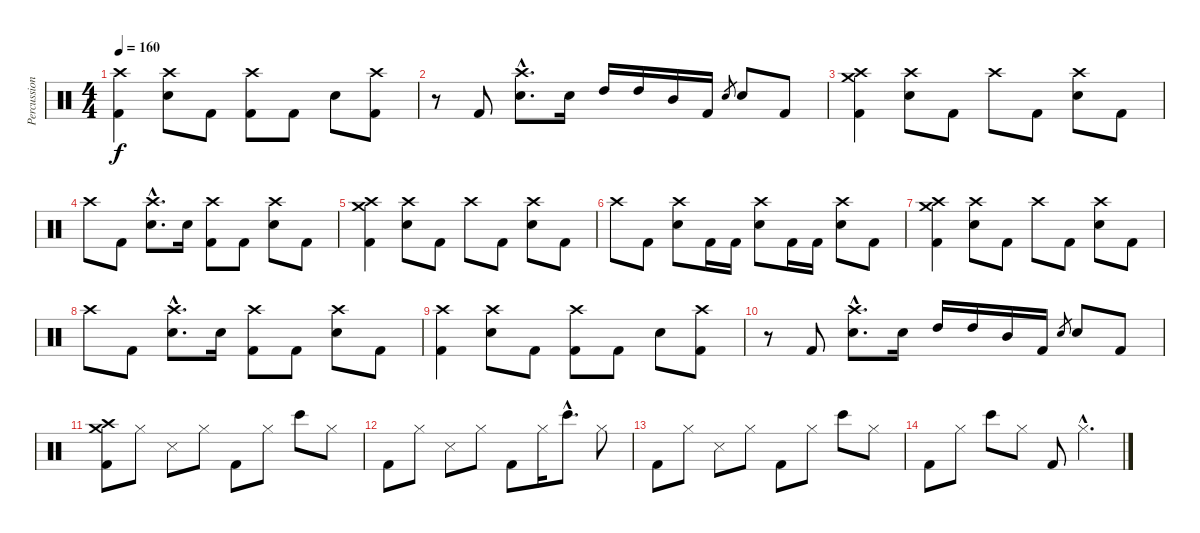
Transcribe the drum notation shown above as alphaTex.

\track ("Percussion" "Percussion") {instrument percussion}
\staff {score}
\articulation defaults
\ts (4 4)
\tempo 160
\clef neutral
\ks c
("Crash high (hit)" "Kick (hit) 2").4{dy f} ("Crash high (hit)" "Electric Snare (hit)").8 "Kick (hit) 2".8 ("Crash high (hit)" "Kick (hit) 2").8 "Kick (hit) 2".8 "Electric Snare (hit)".8 ("Crash high (hit)" "Kick (hit) 2").8 |
r.8 "Kick (hit) 2".8 ("Crash high (hit)"{hac} "Electric Snare (hit)"{hac}).8{d} "Electric Snare (hit)".16 "High Tom (hit)".16 "High Tom (hit)".16 "Mid Tom (hit)".16 "Kick (hit) 2".16 "Electric Snare (hit)".8{gr} "Electric Snare (hit)".8 "Kick (hit) 2".8 |
("Crash high (hit)" "Crash medium (hit)" "Kick (hit) 2").4 ("Crash high (hit)" "Electric Snare (hit)").8 "Kick (hit) 2".8 "Crash high (hit)".8 "Kick (hit) 2".8 ("Crash high (hit)" "Electric Snare (hit)").8 "Kick (hit) 2".8 |
"Crash high (hit)".8 "Kick (hit) 2".8 ("Crash high (hit)"{hac} "Electric Snare (hit)"{hac}).8{d} "Electric Snare (hit)".16 ("Crash high (hit)" "Kick (hit) 2").8 "Kick (hit) 2".8 ("Crash high (hit)" "Electric Snare (hit)").8 "Kick (hit) 2".8 |
("Crash high (hit)" "Crash medium (hit)" "Kick (hit) 2").4 ("Crash high (hit)" "Electric Snare (hit)").8 "Kick (hit) 2".8 "Crash high (hit)".8 "Kick (hit) 2".8 ("Crash high (hit)" "Electric Snare (hit)").8 "Kick (hit) 2".8 |
"Crash high (hit)".8 "Kick (hit) 2".8 ("Crash high (hit)" "Electric Snare (hit)").8 "Kick (hit) 2".16 "Kick (hit) 2".16 ("Crash high (hit)" "Electric Snare (hit)").8 "Kick (hit) 2".16 "Kick (hit) 2".16 ("Crash high (hit)" "Electric Snare (hit)").8 "Kick (hit) 2".8 |
("Crash high (hit)" "Crash medium (hit)" "Kick (hit) 2").4 ("Crash high (hit)" "Electric Snare (hit)").8 "Kick (hit) 2".8 "Crash high (hit)".8 "Kick (hit) 2".8 ("Crash high (hit)" "Electric Snare (hit)").8 "Kick (hit) 2".8 |
"Crash high (hit)".8 "Kick (hit) 2".8 ("Crash high (hit)"{hac} "Electric Snare (hit)"{hac}).8{d} "Electric Snare (hit)".16 ("Crash high (hit)" "Kick (hit) 2").8 "Kick (hit) 2".8 ("Crash high (hit)" "Electric Snare (hit)").8 "Kick (hit) 2".8 |
("Crash high (hit)" "Kick (hit) 2").4 ("Crash high (hit)" "Electric Snare (hit)").8 "Kick (hit) 2".8 ("Crash high (hit)" "Kick (hit) 2").8 "Kick (hit) 2".8 "Electric Snare (hit)".8 ("Crash high (hit)" "Kick (hit) 2").8 |
r.8 "Kick (hit) 2".8 ("Crash high (hit)"{hac} "Electric Snare (hit)"{hac}).8{d} "Electric Snare (hit)".16 "High Tom (hit)".16 "High Tom (hit)".16 "Mid Tom (hit)".16 "Kick (hit) 2".16 "Electric Snare (hit)".8{gr} "Electric Snare (hit)".8 "Kick (hit) 2".8 |
("Crash high (hit)" "Crash medium (hit)" "Kick (hit) 2").8 "Hi-Hat (closed)".8 "Snare (side stick) 3".8 "Hi-Hat (closed)".8 "Kick (hit) 2".8 "Hi-Hat (closed)".8 "Bongo High (hit)".8 "Hi-Hat (closed)".8 |
"Kick (hit) 2".8 "Hi-Hat (closed)".8 "Snare (side stick) 3".8 "Hi-Hat (closed)".8 "Kick (hit) 2".8 "Hi-Hat (closed)".16 "Bongo High (hit)"{hac}.8{d} "Hi-Hat (closed)".8 |
"Kick (hit) 2".8 "Hi-Hat (closed)".8 "Snare (side stick) 3".8 "Hi-Hat (closed)".8 "Kick (hit) 2".8 "Hi-Hat (closed)".8 "Bongo High (hit)".8 "Hi-Hat (closed)".8 |
"Kick (hit) 2".8 "Hi-Hat (closed)".8 "Bongo High (hit)".8 "Hi-Hat (closed)".8 "Kick (hit) 2".8 "Hi-Hat (closed)"{hac}.4{d}
